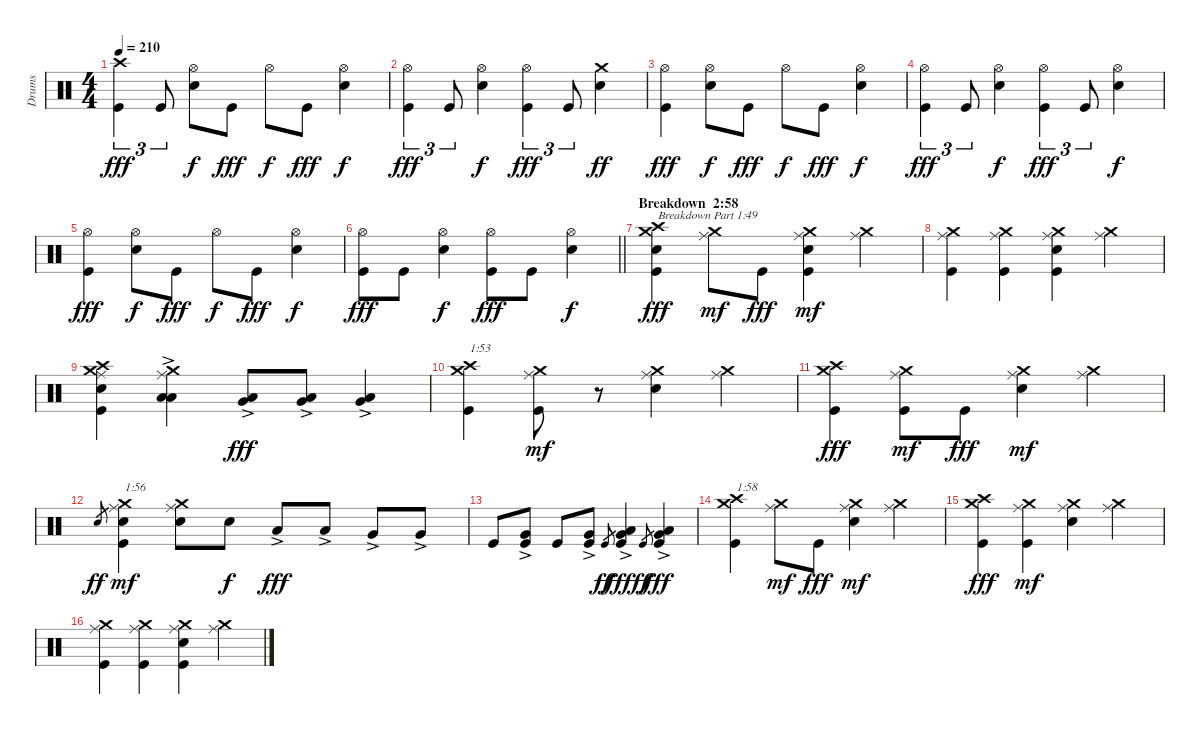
\track ("Drums" "Drums") {instrument percussion}
\staff {score}
\articulation defaults
\ts (4 4)
\tempo 210
\clef neutral
\ks c
("Kick (hit)" "Crash high (hit)").4{tu (3 2) dy fff} "Kick (hit)".8{tu (3 2)} ("Electric Snare (hit)" "Hi-Hat (open)").8{dy f} "Kick (hit)".8{dy fff} "Hi-Hat (open)".8{dy f} "Kick (hit)".8{dy fff} ("Electric Snare (hit)" "Hi-Hat (open)").4{dy f} |
("Kick (hit)" "Hi-Hat (open)").4{tu (3 2) dy fff} "Kick (hit)".8{tu (3 2)} ("Electric Snare (hit)" "Hi-Hat (open)").4{dy f} ("Kick (hit)" "Hi-Hat (open)").4{tu (3 2) dy fff} "Kick (hit)".8{tu (3 2)} ("Electric Snare (hit)" "Crash medium (hit)").4{dy ff} |
("Kick (hit)" "Hi-Hat (open)").4{dy fff} ("Electric Snare (hit)" "Hi-Hat (open)").8{dy f} "Kick (hit)".8{dy fff} "Hi-Hat (open)".8{dy f} "Kick (hit)".8{dy fff} ("Electric Snare (hit)" "Hi-Hat (open)").4{dy f} |
("Kick (hit)" "Hi-Hat (open)").4{tu (3 2) dy fff} "Kick (hit)".8{tu (3 2)} ("Electric Snare (hit)" "Hi-Hat (open)").4{dy f} ("Kick (hit)" "Hi-Hat (open)").4{tu (3 2) dy fff} "Kick (hit)".8{tu (3 2)} ("Electric Snare (hit)" "Hi-Hat (open)").4{dy f} |
("Kick (hit)" "Hi-Hat (open)").4{dy fff} ("Electric Snare (hit)" "Hi-Hat (open)").8{dy f} "Kick (hit)".8{dy fff} "Hi-Hat (open)".8{dy f} "Kick (hit)".8{dy fff} ("Electric Snare (hit)" "Hi-Hat (open)").4{dy f} |
\barLineRight lightlight
("Kick (hit)" "Hi-Hat (open)").8{dy fff} "Kick (hit)".8 ("Electric Snare (hit)" "Hi-Hat (open)").4{dy f} ("Kick (hit)" "Hi-Hat (open)").8{dy fff} "Kick (hit)".8 ("Electric Snare (hit)" "Hi-Hat (open)").4{dy f} |
\section ("" "Breakdown  2:58")
("Kick (hit)" "Electric Snare (hit)" "Crash medium (hit)" "Crash high (hit)").4{txt "Breakdown Part 1:49" dy fff} ("Ride (middle)" "Crash medium (hit)").8{dy mf} "Kick (hit)".8{dy fff} ("Kick (hit)" "Electric Snare (hit)" "Ride (middle)" "Crash medium (hit)").4{dy mf} ("Ride (middle)" "Crash medium (hit)").4 |
("Kick (hit)" "Ride (middle)" "Crash medium (hit)").4 ("Kick (hit)" "Ride (middle)" "Crash medium (hit)").4 ("Kick (hit)" "Electric Snare (hit)" "Ride (middle)" "Crash medium (hit)").4 ("Ride (middle)" "Crash medium (hit)").4 |
("Kick (hit)" "Electric Snare (hit)" "Ride (middle)" "Crash medium (hit)" "Crash high (hit)").4 ("Low Tom (hit)"{ac} "Low Floor Tom (hit)"{ac} "Ride (middle)" "Crash medium (hit)").4 ("Low Tom (hit)"{ac} "Very Low Tom (hit)"{ac}).8{dy fff} ("Low Tom (hit)"{ac} "Very Low Tom (hit)"{ac}).8 ("Low Tom (hit)"{ac} "Very Low Tom (hit)"{ac}).4 |
("Kick (hit)" "Crash medium (hit)" "Crash high (hit)").4{txt "1:53"} ("Kick (hit)" "Ride (middle)" "Crash medium (hit)").8{dy mf} r.8 ("Electric Snare (hit)" "Ride (middle)" "Crash medium (hit)").4 ("Ride (middle)" "Crash medium (hit)").4 |
("Kick (hit)" "Crash medium (hit)" "Crash high (hit)").4{dy fff} ("Kick (hit)" "Ride (middle)" "Crash medium (hit)").8{dy mf} "Kick (hit)".8{dy fff} ("Electric Snare (hit)" "Ride (middle)" "Crash medium (hit)").4{dy mf} ("Ride (middle)" "Crash medium (hit)").4 |
"Electric Snare (hit)".8{gr dy ff} ("Kick (hit)" "Electric Snare (hit)" "Ride (middle)" "Crash medium (hit)").4{txt "1:56" dy mf} ("Electric Snare (hit)" "Ride (middle)" "Crash medium (hit)").8 "Electric Snare (hit)".8{dy f} "Low Tom (hit)"{ac}.8{dy fff} "Low Tom (hit)"{ac}.8 "Very Low Tom (hit)"{ac}.8 "Very Low Tom (hit)"{ac}.8 |
"Kick (hit)".8 ("Kick (hit)" "Very Low Tom (hit)"{ac}).8 "Kick (hit)".8 ("Kick (hit)" "Very Low Tom (hit)"{ac}).8 "Kick (hit)".8{gr dy ff} ("Kick (hit)" "Very Low Tom (hit)"{ac} "Low Tom (hit)"{ac}).4{dy fff} "Kick (hit)".8{gr dy ff} ("Kick (hit)" "Very Low Tom (hit)"{ac} "Low Tom (hit)"{ac}).4{dy fff} |
("Kick (hit)" "Crash medium (hit)" "Crash high (hit)").4{txt "1:58"} ("Ride (middle)" "Crash medium (hit)").8{dy mf} "Kick (hit)".8{dy fff} ("Electric Snare (hit)" "Ride (middle)" "Crash medium (hit)").4{dy mf} ("Ride (middle)" "Crash medium (hit)").4 |
("Kick (hit)" "Crash medium (hit)" "Crash high (hit)").4{dy fff} ("Kick (hit)" "Ride (middle)" "Crash medium (hit)").4{dy mf} ("Electric Snare (hit)" "Ride (middle)" "Crash medium (hit)").4 ("Ride (middle)" "Crash medium (hit)").4 |
("Kick (hit)" "Ride (middle)" "Crash medium (hit)").4 ("Kick (hit)" "Ride (middle)" "Crash medium (hit)").4 ("Kick (hit)" "Electric Snare (hit)" "Ride (middle)" "Crash medium (hit)").4 ("Ride (middle)" "Crash medium (hit)").4
